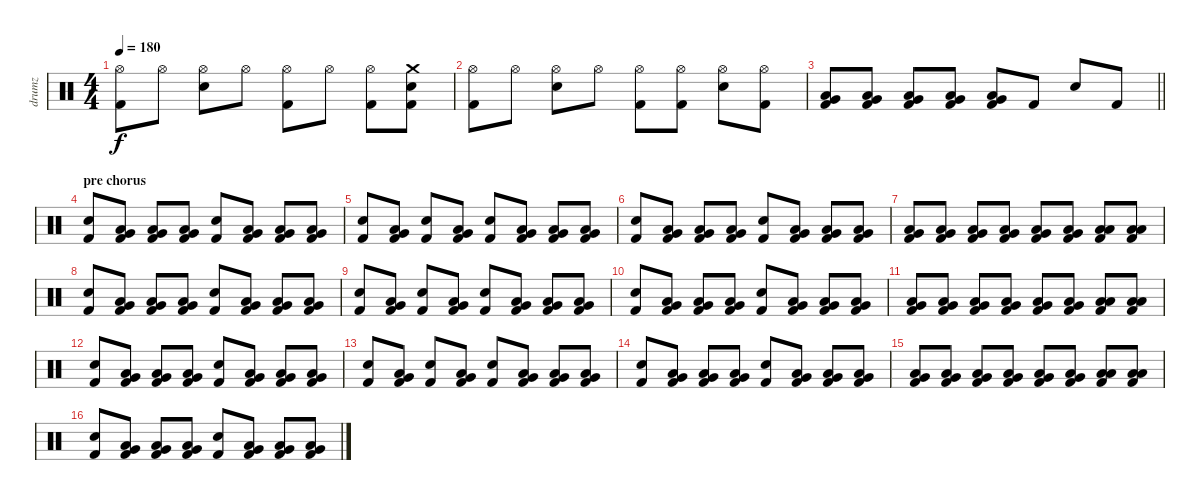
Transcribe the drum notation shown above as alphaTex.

\track ("drumz" "drumz") {instrument percussion}
\staff {score}
\articulation defaults
\ts (4 4)
\tempo 180
\clef neutral
\ks c
("Hi-Hat (open)" "Kick (hit) 2").8{dy f} "Hi-Hat (open)".8 ("Hi-Hat (open)" "Electric Snare (hit)").8 "Hi-Hat (open)".8 ("Hi-Hat (open)" "Kick (hit) 2").8 "Hi-Hat (open)".8 ("Hi-Hat (open)" "Kick (hit) 2").8 ("Crash medium (hit)" "Electric Snare (hit)" "Kick (hit) 2").8 |
("Hi-Hat (open)" "Kick (hit) 2").8 "Hi-Hat (open)".8 ("Hi-Hat (open)" "Electric Snare (hit)").8 "Hi-Hat (open)".8 ("Hi-Hat (open)" "Kick (hit) 2").8 ("Hi-Hat (open)" "Kick (hit) 2").8 ("Hi-Hat (open)" "Electric Snare (hit)").8 ("Hi-Hat (open)" "Kick (hit) 2").8 |
\barLineRight lightlight
("Low Tom (hit)" "Very Low Tom (hit)" "Kick (hit) 2").8 ("Low Tom (hit)" "Very Low Tom (hit)" "Kick (hit) 2").8 ("Low Tom (hit)" "Very Low Tom (hit)" "Kick (hit) 2").8 ("Low Tom (hit)" "Very Low Tom (hit)" "Kick (hit) 2").8 ("Very Low Tom (hit)" "Low Floor Tom (hit)" "Kick (hit) 2").8 "Kick (hit) 2".8 "Electric Snare (hit)".8 "Kick (hit) 2".8 |
\section ("" "pre chorus")
("Electric Snare (hit)" "Kick (hit) 2").8 ("Very Low Tom (hit)" "Low Floor Tom (hit)" "Kick (hit) 2").8 ("Very Low Tom (hit)" "Low Floor Tom (hit)" "Kick (hit) 2").8 ("Very Low Tom (hit)" "Low Floor Tom (hit)" "Kick (hit) 2").8 ("Electric Snare (hit)" "Kick (hit) 2").8 ("Very Low Tom (hit)" "Low Floor Tom (hit)" "Kick (hit) 2").8 ("Very Low Tom (hit)" "Low Floor Tom (hit)" "Kick (hit) 2").8 ("Very Low Tom (hit)" "Low Floor Tom (hit)" "Kick (hit) 2").8 |
("Electric Snare (hit)" "Kick (hit) 2").8 ("Very Low Tom (hit)" "Low Floor Tom (hit)" "Kick (hit) 2").8 ("Electric Snare (hit)" "Kick (hit) 2").8 ("Very Low Tom (hit)" "Low Floor Tom (hit)" "Kick (hit) 2").8 ("Electric Snare (hit)" "Kick (hit) 2").8 ("Very Low Tom (hit)" "Low Floor Tom (hit)" "Kick (hit) 2").8 ("Very Low Tom (hit)" "Low Floor Tom (hit)" "Kick (hit) 2").8 ("Very Low Tom (hit)" "Low Floor Tom (hit)" "Kick (hit) 2").8 |
("Electric Snare (hit)" "Kick (hit) 2").8 ("Very Low Tom (hit)" "Low Floor Tom (hit)" "Kick (hit) 2").8 ("Very Low Tom (hit)" "Low Floor Tom (hit)" "Kick (hit) 2").8 ("Very Low Tom (hit)" "Low Floor Tom (hit)" "Kick (hit) 2").8 ("Electric Snare (hit)" "Kick (hit) 2").8 ("Very Low Tom (hit)" "Low Floor Tom (hit)" "Kick (hit) 2").8 ("Very Low Tom (hit)" "Low Floor Tom (hit)" "Kick (hit) 2").8 ("Very Low Tom (hit)" "Low Floor Tom (hit)" "Kick (hit) 2").8 |
("Low Tom (hit)" "Very Low Tom (hit)" "Kick (hit) 2").8 ("Low Tom (hit)" "Very Low Tom (hit)" "Kick (hit) 2").8 ("Low Tom (hit)" "Very Low Tom (hit)" "Kick (hit) 2").8 ("Low Tom (hit)" "Very Low Tom (hit)" "Kick (hit) 2").8 ("Very Low Tom (hit)" "Low Floor Tom (hit)" "Kick (hit) 2").8 ("Very Low Tom (hit)" "Low Floor Tom (hit)" "Kick (hit) 2").8 ("Low Floor Tom (hit)" "Low Floor Tom (hit)" "Kick (hit) 2").8 ("Low Floor Tom (hit)" "Low Floor Tom (hit)" "Kick (hit) 2").8 |
("Electric Snare (hit)" "Kick (hit) 2").8 ("Very Low Tom (hit)" "Low Floor Tom (hit)" "Kick (hit) 2").8 ("Very Low Tom (hit)" "Low Floor Tom (hit)" "Kick (hit) 2").8 ("Very Low Tom (hit)" "Low Floor Tom (hit)" "Kick (hit) 2").8 ("Electric Snare (hit)" "Kick (hit) 2").8 ("Very Low Tom (hit)" "Low Floor Tom (hit)" "Kick (hit) 2").8 ("Very Low Tom (hit)" "Low Floor Tom (hit)" "Kick (hit) 2").8 ("Very Low Tom (hit)" "Low Floor Tom (hit)" "Kick (hit) 2").8 |
("Electric Snare (hit)" "Kick (hit) 2").8 ("Very Low Tom (hit)" "Low Floor Tom (hit)" "Kick (hit) 2").8 ("Electric Snare (hit)" "Kick (hit) 2").8 ("Very Low Tom (hit)" "Low Floor Tom (hit)" "Kick (hit) 2").8 ("Electric Snare (hit)" "Kick (hit) 2").8 ("Very Low Tom (hit)" "Low Floor Tom (hit)" "Kick (hit) 2").8 ("Very Low Tom (hit)" "Low Floor Tom (hit)" "Kick (hit) 2").8 ("Very Low Tom (hit)" "Low Floor Tom (hit)" "Kick (hit) 2").8 |
("Electric Snare (hit)" "Kick (hit) 2").8 ("Very Low Tom (hit)" "Low Floor Tom (hit)" "Kick (hit) 2").8 ("Very Low Tom (hit)" "Low Floor Tom (hit)" "Kick (hit) 2").8 ("Very Low Tom (hit)" "Low Floor Tom (hit)" "Kick (hit) 2").8 ("Electric Snare (hit)" "Kick (hit) 2").8 ("Very Low Tom (hit)" "Low Floor Tom (hit)" "Kick (hit) 2").8 ("Very Low Tom (hit)" "Low Floor Tom (hit)" "Kick (hit) 2").8 ("Very Low Tom (hit)" "Low Floor Tom (hit)" "Kick (hit) 2").8 |
("Low Tom (hit)" "Very Low Tom (hit)" "Kick (hit) 2").8 ("Low Tom (hit)" "Very Low Tom (hit)" "Kick (hit) 2").8 ("Low Tom (hit)" "Very Low Tom (hit)" "Kick (hit) 2").8 ("Low Tom (hit)" "Very Low Tom (hit)" "Kick (hit) 2").8 ("Very Low Tom (hit)" "Low Floor Tom (hit)" "Kick (hit) 2").8 ("Very Low Tom (hit)" "Low Floor Tom (hit)" "Kick (hit) 2").8 ("Low Floor Tom (hit)" "Low Floor Tom (hit)" "Kick (hit) 2").8 ("Low Floor Tom (hit)" "Low Floor Tom (hit)" "Kick (hit) 2").8 |
("Electric Snare (hit)" "Kick (hit) 2").8 ("Very Low Tom (hit)" "Low Floor Tom (hit)" "Kick (hit) 2").8 ("Very Low Tom (hit)" "Low Floor Tom (hit)" "Kick (hit) 2").8 ("Very Low Tom (hit)" "Low Floor Tom (hit)" "Kick (hit) 2").8 ("Electric Snare (hit)" "Kick (hit) 2").8 ("Very Low Tom (hit)" "Low Floor Tom (hit)" "Kick (hit) 2").8 ("Very Low Tom (hit)" "Low Floor Tom (hit)" "Kick (hit) 2").8 ("Very Low Tom (hit)" "Low Floor Tom (hit)" "Kick (hit) 2").8 |
("Electric Snare (hit)" "Kick (hit) 2").8 ("Very Low Tom (hit)" "Low Floor Tom (hit)" "Kick (hit) 2").8 ("Electric Snare (hit)" "Kick (hit) 2").8 ("Very Low Tom (hit)" "Low Floor Tom (hit)" "Kick (hit) 2").8 ("Electric Snare (hit)" "Kick (hit) 2").8 ("Very Low Tom (hit)" "Low Floor Tom (hit)" "Kick (hit) 2").8 ("Very Low Tom (hit)" "Low Floor Tom (hit)" "Kick (hit) 2").8 ("Very Low Tom (hit)" "Low Floor Tom (hit)" "Kick (hit) 2").8 |
("Electric Snare (hit)" "Kick (hit) 2").8 ("Very Low Tom (hit)" "Low Floor Tom (hit)" "Kick (hit) 2").8 ("Very Low Tom (hit)" "Low Floor Tom (hit)" "Kick (hit) 2").8 ("Very Low Tom (hit)" "Low Floor Tom (hit)" "Kick (hit) 2").8 ("Electric Snare (hit)" "Kick (hit) 2").8 ("Very Low Tom (hit)" "Low Floor Tom (hit)" "Kick (hit) 2").8 ("Very Low Tom (hit)" "Low Floor Tom (hit)" "Kick (hit) 2").8 ("Very Low Tom (hit)" "Low Floor Tom (hit)" "Kick (hit) 2").8 |
("Low Tom (hit)" "Very Low Tom (hit)" "Kick (hit) 2").8 ("Low Tom (hit)" "Very Low Tom (hit)" "Kick (hit) 2").8 ("Low Tom (hit)" "Very Low Tom (hit)" "Kick (hit) 2").8 ("Low Tom (hit)" "Very Low Tom (hit)" "Kick (hit) 2").8 ("Very Low Tom (hit)" "Low Floor Tom (hit)" "Kick (hit) 2").8 ("Very Low Tom (hit)" "Low Floor Tom (hit)" "Kick (hit) 2").8 ("Low Floor Tom (hit)" "Low Floor Tom (hit)" "Kick (hit) 2").8 ("Low Floor Tom (hit)" "Low Floor Tom (hit)" "Kick (hit) 2").8 |
("Electric Snare (hit)" "Kick (hit) 2").8 ("Very Low Tom (hit)" "Low Floor Tom (hit)" "Kick (hit) 2").8 ("Very Low Tom (hit)" "Low Floor Tom (hit)" "Kick (hit) 2").8 ("Very Low Tom (hit)" "Low Floor Tom (hit)" "Kick (hit) 2").8 ("Electric Snare (hit)" "Kick (hit) 2").8 ("Very Low Tom (hit)" "Low Floor Tom (hit)" "Kick (hit) 2").8 ("Very Low Tom (hit)" "Low Floor Tom (hit)" "Kick (hit) 2").8 ("Very Low Tom (hit)" "Low Floor Tom (hit)" "Kick (hit) 2").8
